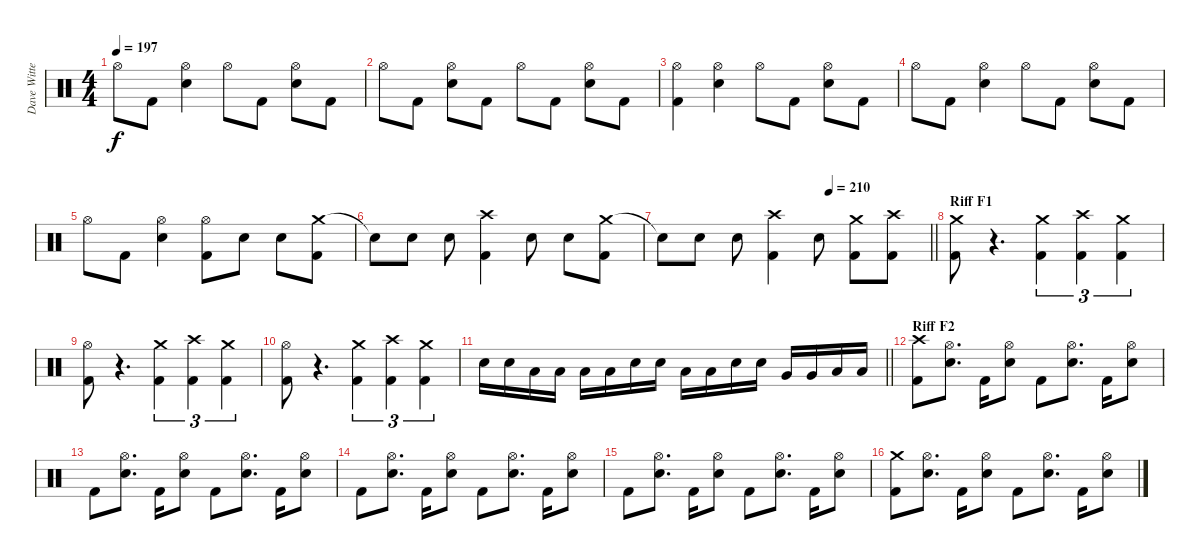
\track ("Dave Witte" "Dave Witte") {instrument percussion}
\staff {score}
\articulation defaults
\ts (4 4)
\tempo 197
\clef neutral
\ks c "Hi-Hat (open)".8{dy f} "Kick (hit) 2".8
("Hi-Hat (open)" "Electric Snare (hit)").4 "Hi-Hat (open)".8 "Kick (hit) 2".8 ("Hi-Hat (open)" "Electric Snare (hit)").8 "Kick (hit) 2".8 |
"Hi-Hat (open)".8 "Kick (hit) 2".8 ("Hi-Hat (open)" "Electric Snare (hit)").8 "Kick (hit) 2".8 "Hi-Hat (open)".8 "Kick (hit) 2".8 ("Hi-Hat (open)" "Electric Snare (hit)").8 "Kick (hit) 2".8 |
("Hi-Hat (open)" "Kick (hit) 2").4 ("Hi-Hat (open)" "Electric Snare (hit)").4 "Hi-Hat (open)".8 "Kick (hit) 2".8 ("Hi-Hat (open)" "Electric Snare (hit)").8 "Kick (hit) 2".8 |
"Hi-Hat (open)".8 "Kick (hit) 2".8 ("Hi-Hat (open)" "Electric Snare (hit)").4 "Hi-Hat (open)".8 "Kick (hit) 2".8 ("Hi-Hat (open)" "Electric Snare (hit)").8 "Kick (hit) 2".8 |
"Hi-Hat (open)".8 "Kick (hit) 2".8 ("Hi-Hat (open)" "Electric Snare (hit)").4 ("Hi-Hat (open)" "Kick (hit) 2").8 "Electric Snare (hit)".8 "Electric Snare (hit)".8 ("Crash medium (hit)" "Kick (hit) 2").8 |
"Snare (hit)"{t}.8 "Electric Snare (hit)".8 "Electric Snare (hit)".8 ("Crash high (hit)" "Kick (hit) 2").4 "Electric Snare (hit)".8 "Electric Snare (hit)".8 ("Crash medium (hit)" "Kick (hit) 2").8 |
\tempo (210 0.625)
\barLineRight lightlight "Snare (hit)"{t}.8 "Electric Snare (hit)".8 "Electric Snare (hit)".8
("Crash high (hit)" "Kick (hit) 2").4 "Electric Snare (hit)".8 ("Crash medium (hit)" "Kick (hit) 2").8 ("Crash high (hit)" "Kick (hit) 2").8 |
\section ("" "Riff F1")
("Crash medium (hit)" "Kick (hit) 2").8 r.4{d volume 0} ("Crash medium (hit)" "Kick (hit) 2").4{tu (3 2) volume 14} ("Crash high (hit)" "Kick (hit) 2").4{tu (3 2)} ("Crash medium (hit)" "Kick (hit) 2").4{tu (3 2)} |
("Hi-Hat (open)" "Kick (hit) 2").8 r.4{d volume 0} ("Crash medium (hit)" "Kick (hit) 2").4{tu (3 2) volume 14} ("Crash high (hit)" "Kick (hit) 2").4{tu (3 2)} ("Crash medium (hit)" "Kick (hit) 2").4{tu (3 2)} |
("Hi-Hat (open)" "Kick (hit) 2").8 r.4{d volume 0} ("Crash medium (hit)" "Kick (hit) 2").4{tu (3 2) volume 14} ("Crash high (hit)" "Kick (hit) 2").4{tu (3 2)} ("Crash medium (hit)" "Kick (hit) 2").4{tu (3 2)} |
\barLineRight lightlight "Electric Snare (hit)".16 "Electric Snare (hit)".16 "Low Tom (hit)".16 "Low Tom (hit)".16 "Low Tom (hit)".16 "Low Tom (hit)".16 "Electric Snare (hit)".16 "Electric Snare (hit)".16 "Low Tom (hit)".16 "Low Tom (hit)".16 "Electric Snare (hit)".16 "Electric Snare (hit)".16 "Very Low Tom (hit)".16 "Very Low Tom (hit)".16 "Low Floor Tom (hit)".16 "Low Floor Tom (hit)".16
|
\section ("" "Riff F2")
("Crash high (hit)" "Kick (hit) 2").8 ("Hi-Hat (open)" "Electric Snare (hit)").8{d} "Kick (hit) 2".16 ("Hi-Hat (open)" "Electric Snare (hit)").8 "Kick (hit) 2".8 ("Hi-Hat (open)" "Electric Snare (hit)").8{d} "Kick (hit) 2".16 ("Hi-Hat (open)" "Electric Snare (hit)").8 |
"Kick (hit) 2".8 ("Hi-Hat (open)" "Electric Snare (hit)").8{d} "Kick (hit) 2".16 ("Hi-Hat (open)" "Electric Snare (hit)").8 "Kick (hit) 2".8 ("Hi-Hat (open)" "Electric Snare (hit)").8{d} "Kick (hit) 2".16 ("Hi-Hat (open)" "Electric Snare (hit)").8 |
"Kick (hit) 2".8 ("Hi-Hat (open)" "Electric Snare (hit)").8{d} "Kick (hit) 2".16 ("Hi-Hat (open)" "Electric Snare (hit)").8 "Kick (hit) 2".8 ("Hi-Hat (open)" "Electric Snare (hit)").8{d} "Kick (hit) 2".16 ("Hi-Hat (open)" "Electric Snare (hit)").8 |
"Kick (hit) 2".8 ("Hi-Hat (open)" "Electric Snare (hit)").8{d} "Kick (hit) 2".16 ("Hi-Hat (open)" "Electric Snare (hit)").8 "Kick (hit) 2".8 ("Hi-Hat (open)" "Electric Snare (hit)").8{d} "Kick (hit) 2".16 ("Hi-Hat (open)" "Electric Snare (hit)").8 |
("Crash medium (hit)" "Kick (hit) 2").8 ("Hi-Hat (open)" "Electric Snare (hit)").8{d} "Kick (hit) 2".16 ("Hi-Hat (open)" "Electric Snare (hit)").8 "Kick (hit) 2".8 ("Hi-Hat (open)" "Electric Snare (hit)").8{d} "Kick (hit) 2".16 ("Hi-Hat (open)" "Electric Snare (hit)").8
